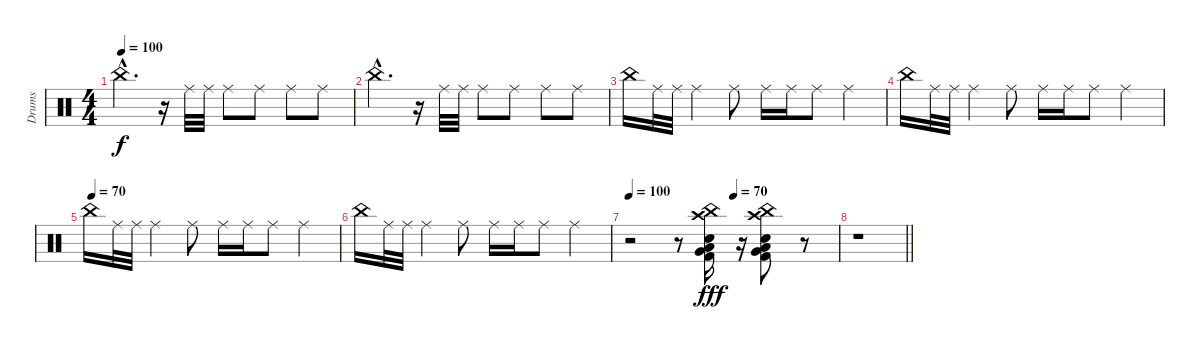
\track ("Drums" "Drums") {instrument percussion}
\staff {score}
\articulation defaults
\ts (4 4)
\tempo 100
\clef neutral
\ks c "China (hit)"{hac}.4{d dy f}
r.16 "Ride (middle)".32 "Ride (middle)".32 "Ride (middle)".8 "Ride (middle)".8 "Ride (middle)".8 "Ride (middle)".8 |
"China (hit)"{hac}.4{d} r.16 "Ride (middle)".32 "Ride (middle)".32 "Ride (middle)".8 "Ride (middle)".8 "Ride (middle)".8 "Ride (middle)".8 |
"China (hit)".16 "Ride (middle)".32 "Ride (middle)".32 "Ride (middle)".4 "Ride (middle)".8 "Ride (middle)".16 "Ride (middle)".16 "Ride (middle)".8 "Ride (middle)".4 |
"China (hit)".16 "Ride (middle)".32 "Ride (middle)".32 "Ride (middle)".4 "Ride (middle)".8 "Ride (middle)".16 "Ride (middle)".16 "Ride (middle)".8 "Ride (middle)".4 |
\tempo (70)
"China (hit)".16 "Ride (middle)".32 "Ride (middle)".32 "Ride (middle)".4 "Ride (middle)".8 "Ride (middle)".16 "Ride (middle)".16 "Ride (middle)".8 "Ride (middle)".4 |
"China (hit)".16 "Ride (middle)".32 "Ride (middle)".32 "Ride (middle)".4 "Ride (middle)".8 "Ride (middle)".16 "Ride (middle)".16 "Ride (middle)".8 "Ride (middle)".4 |
\tempo 100
\tempo (70 0.5)
r.2 r.8 ("Crash high (hit)" "China (hit)" "Kick (hit) 2" "Low Floor Tom (hit)" "Very Low Tom (hit)" "Snare (hit) 2").16{dy fff volume 16} r.16 ("Crash high (hit)" "China (hit)" "Kick (hit) 2" "Low Floor Tom (hit)" "Very Low Tom (hit)" "Snare (hit) 2").8 r.8 |
\barLineRight lightlight
r.1
